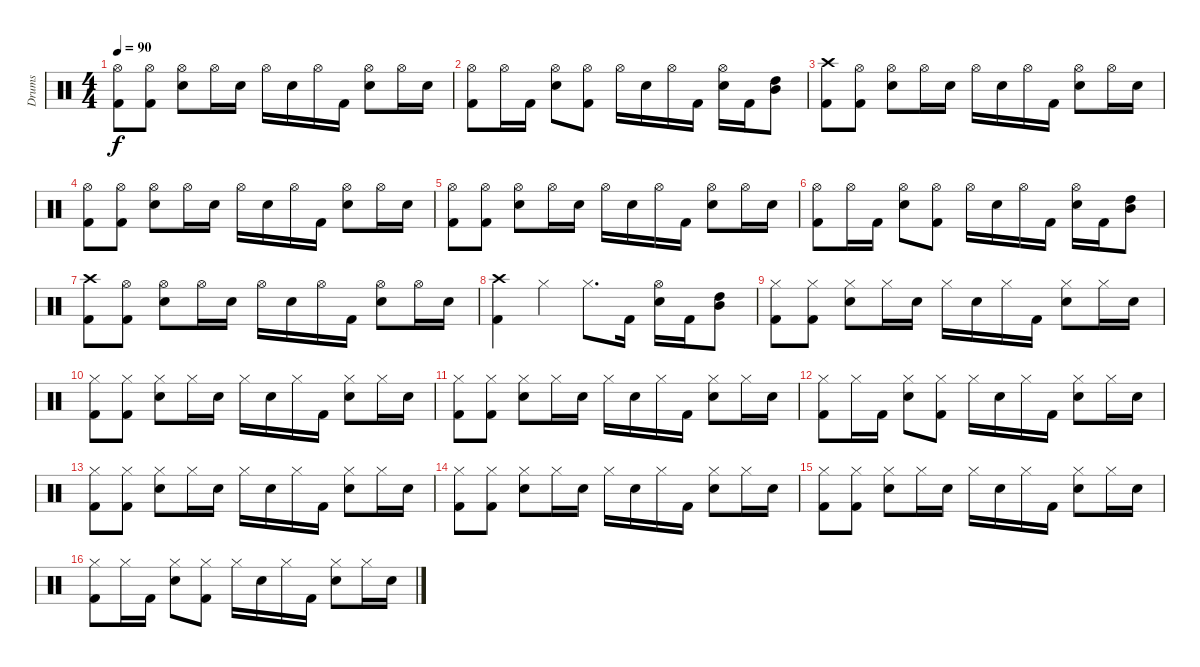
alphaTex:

\track ("Drums" "Drums") {instrument percussion}
\staff {score}
\articulation defaults
\ts (4 4)
\tempo 90
\clef neutral
\ks c
("Kick (hit) 2" "Hi-Hat (open)").8{dy f} ("Kick (hit) 2" "Hi-Hat (open)").8 ("Snare (hit) 2" "Hi-Hat (open)").8 "Hi-Hat (open)".16 "Snare (hit) 2".16 "Hi-Hat (open)".16 "Snare (hit) 2".16 "Hi-Hat (open)".16 "Kick (hit) 2".16 ("Snare (hit) 2" "Hi-Hat (open)").8 "Hi-Hat (open)".16 "Snare (hit) 2".16 |
("Kick (hit) 2" "Hi-Hat (open)").8 "Hi-Hat (open)".16 "Kick (hit) 2".16 ("Snare (hit) 2" "Hi-Hat (open)").8 ("Kick (hit) 2" "Hi-Hat (open)").8 "Hi-Hat (open)".16 "Snare (hit) 2".16 "Hi-Hat (open)".16 "Kick (hit) 2".16 ("Snare (hit) 2" "Hi-Hat (open)").16 "Kick (hit) 2".16 ("High Tom (hit)" "Mid Tom (hit)").8 |
("Kick (hit) 2" "Crash high (hit)").8 ("Kick (hit) 2" "Hi-Hat (open)").8 ("Snare (hit) 2" "Hi-Hat (open)").8 "Hi-Hat (open)".16 "Snare (hit) 2".16 "Hi-Hat (open)".16 "Snare (hit) 2".16 "Hi-Hat (open)".16 "Kick (hit) 2".16 ("Snare (hit) 2" "Hi-Hat (open)").8 "Hi-Hat (open)".16 "Snare (hit) 2".16 |
("Kick (hit) 2" "Hi-Hat (open)").8 ("Kick (hit) 2" "Hi-Hat (open)").8 ("Snare (hit) 2" "Hi-Hat (open)").8 "Hi-Hat (open)".16 "Snare (hit) 2".16 "Hi-Hat (open)".16 "Snare (hit) 2".16 "Hi-Hat (open)".16 "Kick (hit) 2".16 ("Snare (hit) 2" "Hi-Hat (open)").8 "Hi-Hat (open)".16 "Snare (hit) 2".16 |
("Kick (hit) 2" "Hi-Hat (open)").8 ("Kick (hit) 2" "Hi-Hat (open)").8 ("Snare (hit) 2" "Hi-Hat (open)").8 "Hi-Hat (open)".16 "Snare (hit) 2".16 "Hi-Hat (open)".16 "Snare (hit) 2".16 "Hi-Hat (open)".16 "Kick (hit) 2".16 ("Snare (hit) 2" "Hi-Hat (open)").8 "Hi-Hat (open)".16 "Snare (hit) 2".16 |
("Kick (hit) 2" "Hi-Hat (open)").8 "Hi-Hat (open)".16 "Kick (hit) 2".16 ("Snare (hit) 2" "Hi-Hat (open)").8 ("Kick (hit) 2" "Hi-Hat (open)").8 "Hi-Hat (open)".16 "Snare (hit) 2".16 "Hi-Hat (open)".16 "Kick (hit) 2".16 ("Snare (hit) 2" "Hi-Hat (open)").16 "Kick (hit) 2".16 ("High Tom (hit)" "Mid Tom (hit)").8 |
("Kick (hit) 2" "Crash high (hit)").8 ("Kick (hit) 2" "Hi-Hat (open)").8 ("Snare (hit) 2" "Hi-Hat (open)").8 "Hi-Hat (open)".16 "Snare (hit) 2".16 "Hi-Hat (open)".16 "Snare (hit) 2".16 "Hi-Hat (open)".16 "Kick (hit) 2".16 ("Snare (hit) 2" "Hi-Hat (open)").8 "Hi-Hat (open)".16 "Snare (hit) 2".16 |
("Kick (hit) 2" "Crash high (hit)").4 "Hi-Hat (closed)".4 "Hi-Hat (closed)".8{d} "Kick (hit) 2".16 ("Snare (hit) 2" "Hi-Hat (open)").16 "Kick (hit) 2".16 ("High Tom (hit)" "Mid Tom (hit)").8 |
("Kick (hit) 2" "Hi-Hat (closed)").8 ("Kick (hit) 2" "Hi-Hat (closed)").8 ("Snare (hit) 2" "Hi-Hat (closed)").8 "Hi-Hat (closed)".16 "Snare (hit) 2".16 "Hi-Hat (closed)".16 "Snare (hit) 2".16 "Hi-Hat (closed)".16 "Kick (hit) 2".16 ("Snare (hit) 2" "Hi-Hat (closed)").8 "Hi-Hat (closed)".16 "Snare (hit) 2".16 |
("Kick (hit) 2" "Hi-Hat (closed)").8 ("Kick (hit) 2" "Hi-Hat (closed)").8 ("Snare (hit) 2" "Hi-Hat (closed)").8 "Hi-Hat (closed)".16 "Snare (hit) 2".16 "Hi-Hat (closed)".16 "Snare (hit) 2".16 "Hi-Hat (closed)".16 "Kick (hit) 2".16 ("Snare (hit) 2" "Hi-Hat (closed)").8 "Hi-Hat (closed)".16 "Snare (hit) 2".16 |
("Kick (hit) 2" "Hi-Hat (closed)").8 ("Kick (hit) 2" "Hi-Hat (closed)").8 ("Snare (hit) 2" "Hi-Hat (closed)").8 "Hi-Hat (closed)".16 "Snare (hit) 2".16 "Hi-Hat (closed)".16 "Snare (hit) 2".16 "Hi-Hat (closed)".16 "Kick (hit) 2".16 ("Snare (hit) 2" "Hi-Hat (closed)").8 "Hi-Hat (closed)".16 "Snare (hit) 2".16 |
("Kick (hit) 2" "Hi-Hat (closed)").8 "Hi-Hat (closed)".16 "Kick (hit) 2".16 ("Snare (hit) 2" "Hi-Hat (closed)").8 ("Kick (hit) 2" "Hi-Hat (closed)").8 "Hi-Hat (closed)".16 "Snare (hit) 2".16 "Hi-Hat (closed)".16 "Kick (hit) 2".16 ("Snare (hit) 2" "Hi-Hat (closed)").8 "Hi-Hat (closed)".16 "Snare (hit) 2".16 |
("Kick (hit) 2" "Hi-Hat (closed)").8 ("Kick (hit) 2" "Hi-Hat (closed)").8 ("Snare (hit) 2" "Hi-Hat (closed)").8 "Hi-Hat (closed)".16 "Snare (hit) 2".16 "Hi-Hat (closed)".16 "Snare (hit) 2".16 "Hi-Hat (closed)".16 "Kick (hit) 2".16 ("Snare (hit) 2" "Hi-Hat (closed)").8 "Hi-Hat (closed)".16 "Snare (hit) 2".16 |
("Kick (hit) 2" "Hi-Hat (closed)").8 ("Kick (hit) 2" "Hi-Hat (closed)").8 ("Snare (hit) 2" "Hi-Hat (closed)").8 "Hi-Hat (closed)".16 "Snare (hit) 2".16 "Hi-Hat (closed)".16 "Snare (hit) 2".16 "Hi-Hat (closed)".16 "Kick (hit) 2".16 ("Snare (hit) 2" "Hi-Hat (closed)").8 "Hi-Hat (closed)".16 "Snare (hit) 2".16 |
("Kick (hit) 2" "Hi-Hat (closed)").8 ("Kick (hit) 2" "Hi-Hat (closed)").8 ("Snare (hit) 2" "Hi-Hat (closed)").8 "Hi-Hat (closed)".16 "Snare (hit) 2".16 "Hi-Hat (closed)".16 "Snare (hit) 2".16 "Hi-Hat (closed)".16 "Kick (hit) 2".16 ("Snare (hit) 2" "Hi-Hat (closed)").8 "Hi-Hat (closed)".16 "Snare (hit) 2".16 |
("Kick (hit) 2" "Hi-Hat (closed)").8 "Hi-Hat (closed)".16 "Kick (hit) 2".16 ("Snare (hit) 2" "Hi-Hat (closed)").8 ("Kick (hit) 2" "Hi-Hat (closed)").8 "Hi-Hat (closed)".16 "Snare (hit) 2".16 "Hi-Hat (closed)".16 "Kick (hit) 2".16 ("Snare (hit) 2" "Hi-Hat (closed)").8 "Hi-Hat (closed)".16 "Snare (hit) 2".16
